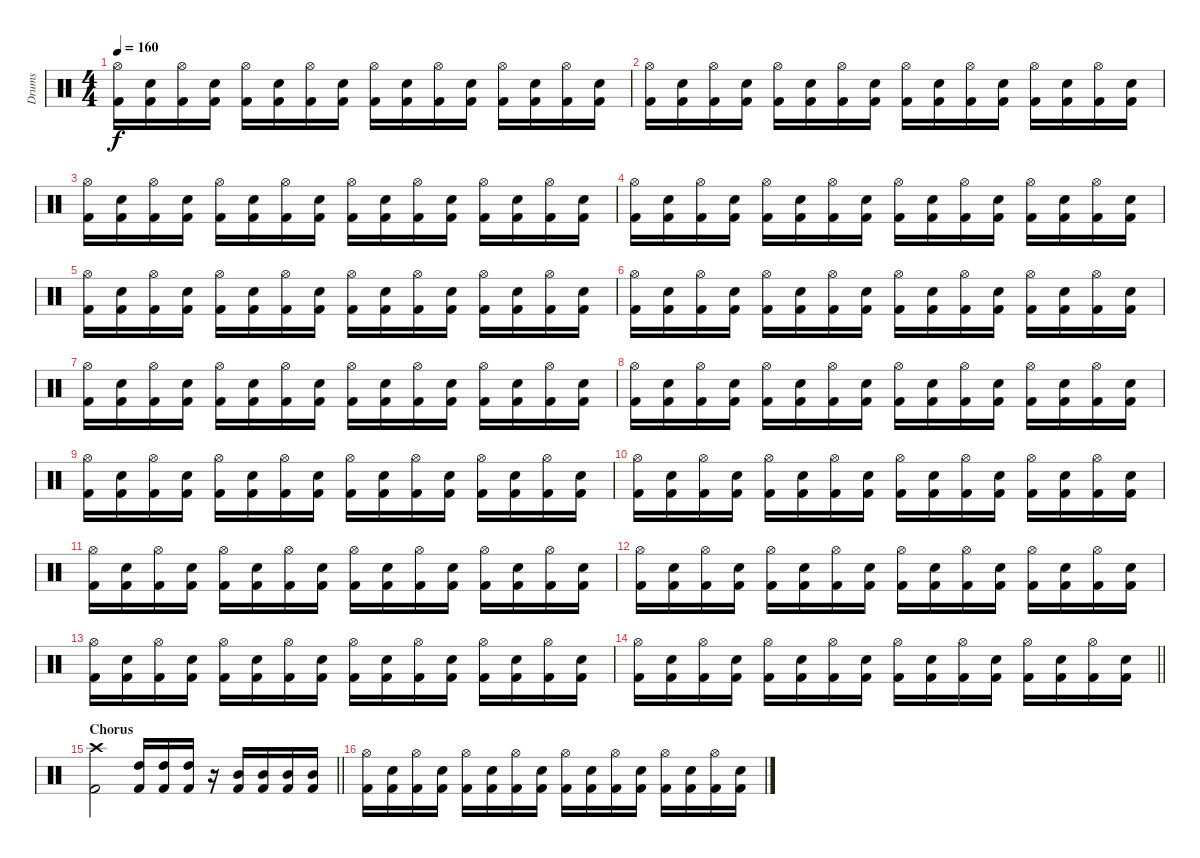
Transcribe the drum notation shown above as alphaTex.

\track ("Drums" "Drums") {instrument percussion}
\staff {score}
\articulation defaults
\ts (4 4)
\tempo 160
\clef neutral
\ks c
("Kick (hit) 2" "Hi-Hat (open)").16{dy f} ("Kick (hit) 2" "Snare (hit) 2").16 ("Kick (hit) 2" "Hi-Hat (open)").16 ("Kick (hit) 2" "Snare (hit) 2").16 ("Kick (hit) 2" "Hi-Hat (open)").16 ("Kick (hit) 2" "Snare (hit) 2").16 ("Kick (hit) 2" "Hi-Hat (open)").16 ("Kick (hit) 2" "Snare (hit) 2").16 ("Kick (hit) 2" "Hi-Hat (open)").16 ("Kick (hit) 2" "Snare (hit) 2").16 ("Kick (hit) 2" "Hi-Hat (open)").16 ("Kick (hit) 2" "Snare (hit) 2").16 ("Kick (hit) 2" "Hi-Hat (open)").16 ("Kick (hit) 2" "Snare (hit) 2").16 ("Kick (hit) 2" "Hi-Hat (open)").16 ("Kick (hit) 2" "Snare (hit) 2").16 |
("Kick (hit) 2" "Hi-Hat (open)").16 ("Kick (hit) 2" "Snare (hit) 2").16 ("Kick (hit) 2" "Hi-Hat (open)").16 ("Kick (hit) 2" "Snare (hit) 2").16 ("Kick (hit) 2" "Hi-Hat (open)").16 ("Kick (hit) 2" "Snare (hit) 2").16 ("Kick (hit) 2" "Hi-Hat (open)").16 ("Kick (hit) 2" "Snare (hit) 2").16 ("Kick (hit) 2" "Hi-Hat (open)").16 ("Kick (hit) 2" "Snare (hit) 2").16 ("Kick (hit) 2" "Hi-Hat (open)").16 ("Kick (hit) 2" "Snare (hit) 2").16 ("Kick (hit) 2" "Hi-Hat (open)").16 ("Kick (hit) 2" "Snare (hit) 2").16 ("Kick (hit) 2" "Hi-Hat (open)").16 ("Kick (hit) 2" "Snare (hit) 2").16 |
("Kick (hit) 2" "Hi-Hat (open)").16 ("Kick (hit) 2" "Snare (hit) 2").16 ("Kick (hit) 2" "Hi-Hat (open)").16 ("Kick (hit) 2" "Snare (hit) 2").16 ("Kick (hit) 2" "Hi-Hat (open)").16 ("Kick (hit) 2" "Snare (hit) 2").16 ("Kick (hit) 2" "Hi-Hat (open)").16 ("Kick (hit) 2" "Snare (hit) 2").16 ("Kick (hit) 2" "Hi-Hat (open)").16 ("Kick (hit) 2" "Snare (hit) 2").16 ("Kick (hit) 2" "Hi-Hat (open)").16 ("Kick (hit) 2" "Snare (hit) 2").16 ("Kick (hit) 2" "Hi-Hat (open)").16 ("Kick (hit) 2" "Snare (hit) 2").16 ("Kick (hit) 2" "Hi-Hat (open)").16 ("Kick (hit) 2" "Snare (hit) 2").16 |
("Kick (hit) 2" "Hi-Hat (open)").16 ("Kick (hit) 2" "Snare (hit) 2").16 ("Kick (hit) 2" "Hi-Hat (open)").16 ("Kick (hit) 2" "Snare (hit) 2").16 ("Kick (hit) 2" "Hi-Hat (open)").16 ("Kick (hit) 2" "Snare (hit) 2").16 ("Kick (hit) 2" "Hi-Hat (open)").16 ("Kick (hit) 2" "Snare (hit) 2").16 ("Kick (hit) 2" "Hi-Hat (open)").16 ("Kick (hit) 2" "Snare (hit) 2").16 ("Kick (hit) 2" "Hi-Hat (open)").16 ("Kick (hit) 2" "Snare (hit) 2").16 ("Kick (hit) 2" "Hi-Hat (open)").16 ("Kick (hit) 2" "Snare (hit) 2").16 ("Kick (hit) 2" "Hi-Hat (open)").16 ("Kick (hit) 2" "Snare (hit) 2").16 |
("Kick (hit) 2" "Hi-Hat (open)").16 ("Kick (hit) 2" "Snare (hit) 2").16 ("Kick (hit) 2" "Hi-Hat (open)").16 ("Kick (hit) 2" "Snare (hit) 2").16 ("Kick (hit) 2" "Hi-Hat (open)").16 ("Kick (hit) 2" "Snare (hit) 2").16 ("Kick (hit) 2" "Hi-Hat (open)").16 ("Kick (hit) 2" "Snare (hit) 2").16 ("Kick (hit) 2" "Hi-Hat (open)").16 ("Kick (hit) 2" "Snare (hit) 2").16 ("Kick (hit) 2" "Hi-Hat (open)").16 ("Kick (hit) 2" "Snare (hit) 2").16 ("Kick (hit) 2" "Hi-Hat (open)").16 ("Kick (hit) 2" "Snare (hit) 2").16 ("Kick (hit) 2" "Hi-Hat (open)").16 ("Kick (hit) 2" "Snare (hit) 2").16 |
("Kick (hit) 2" "Hi-Hat (open)").16 ("Kick (hit) 2" "Snare (hit) 2").16 ("Kick (hit) 2" "Hi-Hat (open)").16 ("Kick (hit) 2" "Snare (hit) 2").16 ("Kick (hit) 2" "Hi-Hat (open)").16 ("Kick (hit) 2" "Snare (hit) 2").16 ("Kick (hit) 2" "Hi-Hat (open)").16 ("Kick (hit) 2" "Snare (hit) 2").16 ("Kick (hit) 2" "Hi-Hat (open)").16 ("Kick (hit) 2" "Snare (hit) 2").16 ("Kick (hit) 2" "Hi-Hat (open)").16 ("Kick (hit) 2" "Snare (hit) 2").16 ("Kick (hit) 2" "Hi-Hat (open)").16 ("Kick (hit) 2" "Snare (hit) 2").16 ("Kick (hit) 2" "Hi-Hat (open)").16 ("Kick (hit) 2" "Snare (hit) 2").16 |
("Kick (hit) 2" "Hi-Hat (open)").16 ("Kick (hit) 2" "Snare (hit) 2").16 ("Kick (hit) 2" "Hi-Hat (open)").16 ("Kick (hit) 2" "Snare (hit) 2").16 ("Kick (hit) 2" "Hi-Hat (open)").16 ("Kick (hit) 2" "Snare (hit) 2").16 ("Kick (hit) 2" "Hi-Hat (open)").16 ("Kick (hit) 2" "Snare (hit) 2").16 ("Kick (hit) 2" "Hi-Hat (open)").16 ("Kick (hit) 2" "Snare (hit) 2").16 ("Kick (hit) 2" "Hi-Hat (open)").16 ("Kick (hit) 2" "Snare (hit) 2").16 ("Kick (hit) 2" "Hi-Hat (open)").16 ("Kick (hit) 2" "Snare (hit) 2").16 ("Kick (hit) 2" "Hi-Hat (open)").16 ("Kick (hit) 2" "Snare (hit) 2").16 |
("Kick (hit) 2" "Hi-Hat (open)").16 ("Kick (hit) 2" "Snare (hit) 2").16 ("Kick (hit) 2" "Hi-Hat (open)").16 ("Kick (hit) 2" "Snare (hit) 2").16 ("Kick (hit) 2" "Hi-Hat (open)").16 ("Kick (hit) 2" "Snare (hit) 2").16 ("Kick (hit) 2" "Hi-Hat (open)").16 ("Kick (hit) 2" "Snare (hit) 2").16 ("Kick (hit) 2" "Hi-Hat (open)").16 ("Kick (hit) 2" "Snare (hit) 2").16 ("Kick (hit) 2" "Hi-Hat (open)").16 ("Kick (hit) 2" "Snare (hit) 2").16 ("Kick (hit) 2" "Hi-Hat (open)").16 ("Kick (hit) 2" "Snare (hit) 2").16 ("Kick (hit) 2" "Hi-Hat (open)").16 ("Kick (hit) 2" "Snare (hit) 2").16 |
("Kick (hit) 2" "Hi-Hat (open)").16 ("Kick (hit) 2" "Snare (hit) 2").16 ("Kick (hit) 2" "Hi-Hat (open)").16 ("Kick (hit) 2" "Snare (hit) 2").16 ("Kick (hit) 2" "Hi-Hat (open)").16 ("Kick (hit) 2" "Snare (hit) 2").16 ("Kick (hit) 2" "Hi-Hat (open)").16 ("Kick (hit) 2" "Snare (hit) 2").16 ("Kick (hit) 2" "Hi-Hat (open)").16 ("Kick (hit) 2" "Snare (hit) 2").16 ("Kick (hit) 2" "Hi-Hat (open)").16 ("Kick (hit) 2" "Snare (hit) 2").16 ("Kick (hit) 2" "Hi-Hat (open)").16 ("Kick (hit) 2" "Snare (hit) 2").16 ("Kick (hit) 2" "Hi-Hat (open)").16 ("Kick (hit) 2" "Snare (hit) 2").16 |
("Kick (hit) 2" "Hi-Hat (open)").16 ("Kick (hit) 2" "Snare (hit) 2").16 ("Kick (hit) 2" "Hi-Hat (open)").16 ("Kick (hit) 2" "Snare (hit) 2").16 ("Kick (hit) 2" "Hi-Hat (open)").16 ("Kick (hit) 2" "Snare (hit) 2").16 ("Kick (hit) 2" "Hi-Hat (open)").16 ("Kick (hit) 2" "Snare (hit) 2").16 ("Kick (hit) 2" "Hi-Hat (open)").16 ("Kick (hit) 2" "Snare (hit) 2").16 ("Kick (hit) 2" "Hi-Hat (open)").16 ("Kick (hit) 2" "Snare (hit) 2").16 ("Kick (hit) 2" "Hi-Hat (open)").16 ("Kick (hit) 2" "Snare (hit) 2").16 ("Kick (hit) 2" "Hi-Hat (open)").16 ("Kick (hit) 2" "Snare (hit) 2").16 |
("Kick (hit) 2" "Hi-Hat (open)").16 ("Kick (hit) 2" "Snare (hit) 2").16 ("Kick (hit) 2" "Hi-Hat (open)").16 ("Kick (hit) 2" "Snare (hit) 2").16 ("Kick (hit) 2" "Hi-Hat (open)").16 ("Kick (hit) 2" "Snare (hit) 2").16 ("Kick (hit) 2" "Hi-Hat (open)").16 ("Kick (hit) 2" "Snare (hit) 2").16 ("Kick (hit) 2" "Hi-Hat (open)").16 ("Kick (hit) 2" "Snare (hit) 2").16 ("Kick (hit) 2" "Hi-Hat (open)").16 ("Kick (hit) 2" "Snare (hit) 2").16 ("Kick (hit) 2" "Hi-Hat (open)").16 ("Kick (hit) 2" "Snare (hit) 2").16 ("Kick (hit) 2" "Hi-Hat (open)").16 ("Kick (hit) 2" "Snare (hit) 2").16 |
("Kick (hit) 2" "Hi-Hat (open)").16 ("Kick (hit) 2" "Snare (hit) 2").16 ("Kick (hit) 2" "Hi-Hat (open)").16 ("Kick (hit) 2" "Snare (hit) 2").16 ("Kick (hit) 2" "Hi-Hat (open)").16 ("Kick (hit) 2" "Snare (hit) 2").16 ("Kick (hit) 2" "Hi-Hat (open)").16 ("Kick (hit) 2" "Snare (hit) 2").16 ("Kick (hit) 2" "Hi-Hat (open)").16 ("Kick (hit) 2" "Snare (hit) 2").16 ("Kick (hit) 2" "Hi-Hat (open)").16 ("Kick (hit) 2" "Snare (hit) 2").16 ("Kick (hit) 2" "Hi-Hat (open)").16 ("Kick (hit) 2" "Snare (hit) 2").16 ("Kick (hit) 2" "Hi-Hat (open)").16 ("Kick (hit) 2" "Snare (hit) 2").16 |
("Kick (hit) 2" "Hi-Hat (open)").16 ("Kick (hit) 2" "Snare (hit) 2").16 ("Kick (hit) 2" "Hi-Hat (open)").16 ("Kick (hit) 2" "Snare (hit) 2").16 ("Kick (hit) 2" "Hi-Hat (open)").16 ("Kick (hit) 2" "Snare (hit) 2").16 ("Kick (hit) 2" "Hi-Hat (open)").16 ("Kick (hit) 2" "Snare (hit) 2").16 ("Kick (hit) 2" "Hi-Hat (open)").16 ("Kick (hit) 2" "Snare (hit) 2").16 ("Kick (hit) 2" "Hi-Hat (open)").16 ("Kick (hit) 2" "Snare (hit) 2").16 ("Kick (hit) 2" "Hi-Hat (open)").16 ("Kick (hit) 2" "Snare (hit) 2").16 ("Kick (hit) 2" "Hi-Hat (open)").16 ("Kick (hit) 2" "Snare (hit) 2").16 |
\barLineRight lightlight
("Kick (hit) 2" "Hi-Hat (open)").16 ("Kick (hit) 2" "Snare (hit) 2").16 ("Kick (hit) 2" "Hi-Hat (open)").16 ("Kick (hit) 2" "Snare (hit) 2").16 ("Kick (hit) 2" "Hi-Hat (open)").16 ("Kick (hit) 2" "Snare (hit) 2").16 ("Kick (hit) 2" "Hi-Hat (open)").16 ("Kick (hit) 2" "Snare (hit) 2").16 ("Kick (hit) 2" "Hi-Hat (open)").16 ("Kick (hit) 2" "Snare (hit) 2").16 ("Kick (hit) 2" "Hi-Hat (open)").16 ("Kick (hit) 2" "Snare (hit) 2").16 ("Kick (hit) 2" "Hi-Hat (open)").16 ("Kick (hit) 2" "Snare (hit) 2").16 ("Kick (hit) 2" "Hi-Hat (open)").16 ("Kick (hit) 2" "Snare (hit) 2").16 |
\section ("" "Chorus")
\barLineRight lightlight
("Kick (hit) 2" "Crash high (hit)").2 ("Kick (hit) 2" "High Tom (hit)").16 ("Kick (hit) 2" "High Tom (hit)").16 ("Kick (hit) 2" "High Tom (hit)").16 r.16 ("Kick (hit) 2" "Mid Tom (hit)").16 ("Kick (hit) 2" "Mid Tom (hit)").16 ("Kick (hit) 2" "Mid Tom (hit)").16 ("Kick (hit) 2" "Mid Tom (hit)").16 |
("Kick (hit) 2" "Hi-Hat (open)").16 ("Kick (hit) 2" "Snare (hit) 2").16 ("Kick (hit) 2" "Hi-Hat (open)").16 ("Kick (hit) 2" "Snare (hit) 2").16 ("Kick (hit) 2" "Hi-Hat (open)").16 ("Kick (hit) 2" "Snare (hit) 2").16 ("Kick (hit) 2" "Hi-Hat (open)").16 ("Kick (hit) 2" "Snare (hit) 2").16 ("Kick (hit) 2" "Hi-Hat (open)").16 ("Kick (hit) 2" "Snare (hit) 2").16 ("Kick (hit) 2" "Hi-Hat (open)").16 ("Kick (hit) 2" "Snare (hit) 2").16 ("Kick (hit) 2" "Hi-Hat (open)").16 ("Kick (hit) 2" "Snare (hit) 2").16 ("Kick (hit) 2" "Hi-Hat (open)").16 ("Kick (hit) 2" "Snare (hit) 2").16
